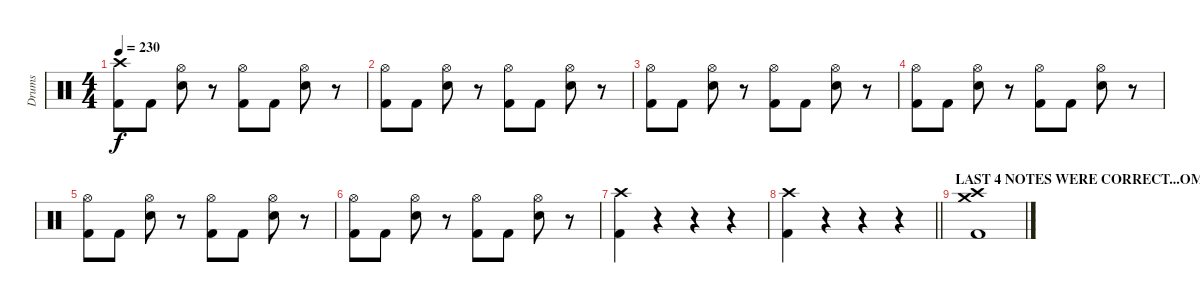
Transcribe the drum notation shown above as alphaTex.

\track ("Drums" "Drums") {instrument percussion}
\staff {score}
\articulation defaults
\ts (4 4)
\tempo 230
\clef neutral
\ks c
("Crash high (hit)" "Kick (hit) 2").8{dy f} "Kick (hit) 2".8 ("Hi-Hat (open)" "Electric Snare (hit)").8 r.8 ("Hi-Hat (open)" "Kick (hit) 2").8 "Kick (hit) 2".8 ("Hi-Hat (open)" "Electric Snare (hit)").8 r.8 |
("Hi-Hat (open)" "Kick (hit) 2").8 "Kick (hit) 2".8 ("Hi-Hat (open)" "Electric Snare (hit)").8 r.8 ("Hi-Hat (open)" "Kick (hit) 2").8 "Kick (hit) 2".8 ("Hi-Hat (open)" "Electric Snare (hit)").8 r.8 |
("Hi-Hat (open)" "Kick (hit) 2").8 "Kick (hit) 2".8 ("Hi-Hat (open)" "Electric Snare (hit)").8 r.8 ("Hi-Hat (open)" "Kick (hit) 2").8 "Kick (hit) 2".8 ("Hi-Hat (open)" "Electric Snare (hit)").8 r.8 |
("Hi-Hat (open)" "Kick (hit) 2").8 "Kick (hit) 2".8 ("Hi-Hat (open)" "Electric Snare (hit)").8 r.8 ("Hi-Hat (open)" "Kick (hit) 2").8 "Kick (hit) 2".8 ("Hi-Hat (open)" "Electric Snare (hit)").8 r.8 |
("Hi-Hat (open)" "Kick (hit) 2").8 "Kick (hit) 2".8 ("Hi-Hat (open)" "Electric Snare (hit)").8 r.8 ("Hi-Hat (open)" "Kick (hit) 2").8 "Kick (hit) 2".8 ("Hi-Hat (open)" "Electric Snare (hit)").8 r.8 |
("Hi-Hat (open)" "Kick (hit) 2").8 "Kick (hit) 2".8 ("Hi-Hat (open)" "Electric Snare (hit)").8 r.8 ("Hi-Hat (open)" "Kick (hit) 2").8 "Kick (hit) 2".8 ("Hi-Hat (open)" "Electric Snare (hit)").8 r.8 |
("Crash high (hit)" "Kick (hit) 2").4 r.4 r.4 r.4 |
\barLineRight lightlight
("Crash high (hit)" "Kick (hit) 2").4 r.4 r.4{volume 0} r.4 |
\section ("" "LAST 4 NOTES WERE CORRECT...OMG")
("Crash high (hit)" "Crash medium (hit)" "Kick (hit) 2").1{volume 16}
